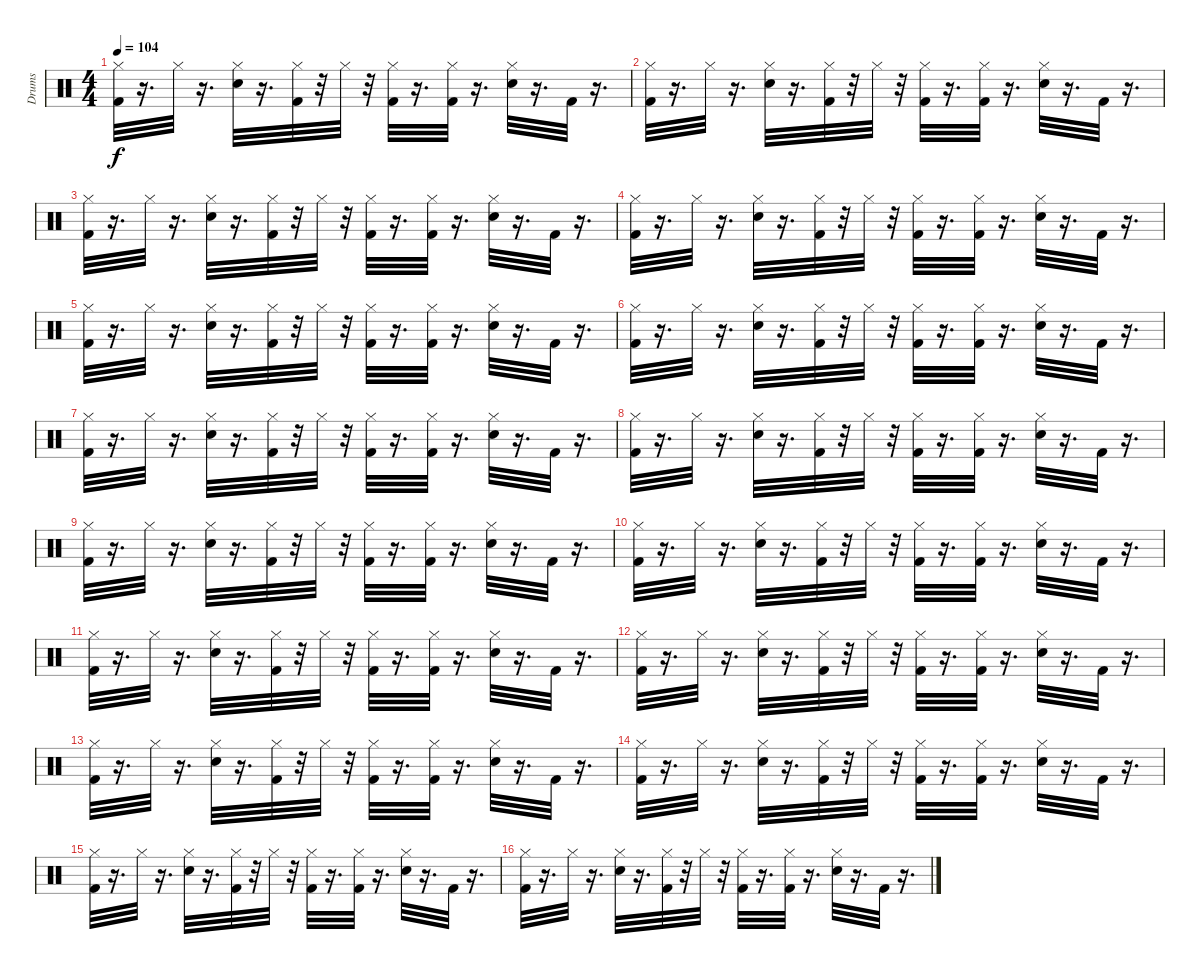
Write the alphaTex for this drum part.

\track ("Drums" "Drums") {instrument percussion}
\staff {score}
\articulation defaults
\ts (4 4)
\tempo 104
\clef neutral
\ks c
("Hi-Hat (closed)" "Kick (hit) 2").32{dy f} r.16{d} "Hi-Hat (closed)".32 r.16{d} ("Hi-Hat (closed)" "Snare (hit) 2").32 r.16{d} ("Hi-Hat (closed)" "Kick (hit) 2").32 r.32 "Hi-Hat (closed)".32 r.32 ("Hi-Hat (closed)" "Kick (hit) 2").32 r.16{d} ("Hi-Hat (closed)" "Kick (hit) 2").32 r.16{d} ("Hi-Hat (closed)" "Snare (hit) 2").32 r.16{d} "Kick (hit) 2".32 r.16{d} |
("Hi-Hat (closed)" "Kick (hit) 2").32 r.16{d} "Hi-Hat (closed)".32 r.16{d} ("Hi-Hat (closed)" "Snare (hit) 2").32 r.16{d} ("Hi-Hat (closed)" "Kick (hit) 2").32 r.32 "Hi-Hat (closed)".32 r.32 ("Hi-Hat (closed)" "Kick (hit) 2").32 r.16{d} ("Hi-Hat (closed)" "Kick (hit) 2").32 r.16{d} ("Hi-Hat (closed)" "Snare (hit) 2").32 r.16{d} "Kick (hit) 2".32 r.16{d} |
("Hi-Hat (closed)" "Kick (hit) 2").32 r.16{d} "Hi-Hat (closed)".32 r.16{d} ("Hi-Hat (closed)" "Snare (hit) 2").32 r.16{d} ("Hi-Hat (closed)" "Kick (hit) 2").32 r.32 "Hi-Hat (closed)".32 r.32 ("Hi-Hat (closed)" "Kick (hit) 2").32 r.16{d} ("Hi-Hat (closed)" "Kick (hit) 2").32 r.16{d} ("Hi-Hat (closed)" "Snare (hit) 2").32 r.16{d} "Kick (hit) 2".32 r.16{d} |
("Hi-Hat (closed)" "Kick (hit) 2").32 r.16{d} "Hi-Hat (closed)".32 r.16{d} ("Hi-Hat (closed)" "Snare (hit) 2").32 r.16{d} ("Hi-Hat (closed)" "Kick (hit) 2").32 r.32 "Hi-Hat (closed)".32 r.32 ("Hi-Hat (closed)" "Kick (hit) 2").32 r.16{d} ("Hi-Hat (closed)" "Kick (hit) 2").32 r.16{d} ("Hi-Hat (closed)" "Snare (hit) 2").32 r.16{d} "Kick (hit) 2".32 r.16{d} |
("Hi-Hat (closed)" "Kick (hit) 2").32 r.16{d} "Hi-Hat (closed)".32 r.16{d} ("Hi-Hat (closed)" "Snare (hit) 2").32 r.16{d} ("Hi-Hat (closed)" "Kick (hit) 2").32 r.32 "Hi-Hat (closed)".32 r.32 ("Hi-Hat (closed)" "Kick (hit) 2").32 r.16{d} ("Hi-Hat (closed)" "Kick (hit) 2").32 r.16{d} ("Hi-Hat (closed)" "Snare (hit) 2").32 r.16{d} "Kick (hit) 2".32 r.16{d} |
("Hi-Hat (closed)" "Kick (hit) 2").32 r.16{d} "Hi-Hat (closed)".32 r.16{d} ("Hi-Hat (closed)" "Snare (hit) 2").32 r.16{d} ("Hi-Hat (closed)" "Kick (hit) 2").32 r.32 "Hi-Hat (closed)".32 r.32 ("Hi-Hat (closed)" "Kick (hit) 2").32 r.16{d} ("Hi-Hat (closed)" "Kick (hit) 2").32 r.16{d} ("Hi-Hat (closed)" "Snare (hit) 2").32 r.16{d} "Kick (hit) 2".32 r.16{d} |
("Hi-Hat (closed)" "Kick (hit) 2").32 r.16{d} "Hi-Hat (closed)".32 r.16{d} ("Hi-Hat (closed)" "Snare (hit) 2").32 r.16{d} ("Hi-Hat (closed)" "Kick (hit) 2").32 r.32 "Hi-Hat (closed)".32 r.32 ("Hi-Hat (closed)" "Kick (hit) 2").32 r.16{d} ("Hi-Hat (closed)" "Kick (hit) 2").32 r.16{d} ("Hi-Hat (closed)" "Snare (hit) 2").32 r.16{d} "Kick (hit) 2".32 r.16{d} |
("Hi-Hat (closed)" "Kick (hit) 2").32 r.16{d} "Hi-Hat (closed)".32 r.16{d} ("Hi-Hat (closed)" "Snare (hit) 2").32 r.16{d} ("Hi-Hat (closed)" "Kick (hit) 2").32 r.32 "Hi-Hat (closed)".32 r.32 ("Hi-Hat (closed)" "Kick (hit) 2").32 r.16{d} ("Hi-Hat (closed)" "Kick (hit) 2").32 r.16{d} ("Hi-Hat (closed)" "Snare (hit) 2").32 r.16{d} "Kick (hit) 2".32 r.16{d} |
("Hi-Hat (closed)" "Kick (hit) 2").32 r.16{d} "Hi-Hat (closed)".32 r.16{d} ("Hi-Hat (closed)" "Snare (hit) 2").32 r.16{d} ("Hi-Hat (closed)" "Kick (hit) 2").32 r.32 "Hi-Hat (closed)".32 r.32 ("Hi-Hat (closed)" "Kick (hit) 2").32 r.16{d} ("Hi-Hat (closed)" "Kick (hit) 2").32 r.16{d} ("Hi-Hat (closed)" "Snare (hit) 2").32 r.16{d} "Kick (hit) 2".32 r.16{d} |
("Hi-Hat (closed)" "Kick (hit) 2").32 r.16{d} "Hi-Hat (closed)".32 r.16{d} ("Hi-Hat (closed)" "Snare (hit) 2").32 r.16{d} ("Hi-Hat (closed)" "Kick (hit) 2").32 r.32 "Hi-Hat (closed)".32 r.32 ("Hi-Hat (closed)" "Kick (hit) 2").32 r.16{d} ("Hi-Hat (closed)" "Kick (hit) 2").32 r.16{d} ("Hi-Hat (closed)" "Snare (hit) 2").32 r.16{d} "Kick (hit) 2".32 r.16{d} |
("Hi-Hat (closed)" "Kick (hit) 2").32 r.16{d} "Hi-Hat (closed)".32 r.16{d} ("Hi-Hat (closed)" "Snare (hit) 2").32 r.16{d} ("Hi-Hat (closed)" "Kick (hit) 2").32 r.32 "Hi-Hat (closed)".32 r.32 ("Hi-Hat (closed)" "Kick (hit) 2").32 r.16{d} ("Hi-Hat (closed)" "Kick (hit) 2").32 r.16{d} ("Hi-Hat (closed)" "Snare (hit) 2").32 r.16{d} "Kick (hit) 2".32 r.16{d} |
("Hi-Hat (closed)" "Kick (hit) 2").32 r.16{d} "Hi-Hat (closed)".32 r.16{d} ("Hi-Hat (closed)" "Snare (hit) 2").32 r.16{d} ("Hi-Hat (closed)" "Kick (hit) 2").32 r.32 "Hi-Hat (closed)".32 r.32 ("Hi-Hat (closed)" "Kick (hit) 2").32 r.16{d} ("Hi-Hat (closed)" "Kick (hit) 2").32 r.16{d} ("Hi-Hat (closed)" "Snare (hit) 2").32 r.16{d} "Kick (hit) 2".32 r.16{d} |
("Hi-Hat (closed)" "Kick (hit) 2").32 r.16{d} "Hi-Hat (closed)".32 r.16{d} ("Hi-Hat (closed)" "Snare (hit) 2").32 r.16{d} ("Hi-Hat (closed)" "Kick (hit) 2").32 r.32 "Hi-Hat (closed)".32 r.32 ("Hi-Hat (closed)" "Kick (hit) 2").32 r.16{d} ("Hi-Hat (closed)" "Kick (hit) 2").32 r.16{d} ("Hi-Hat (closed)" "Snare (hit) 2").32 r.16{d} "Kick (hit) 2".32 r.16{d} |
("Hi-Hat (closed)" "Kick (hit) 2").32 r.16{d} "Hi-Hat (closed)".32 r.16{d} ("Hi-Hat (closed)" "Snare (hit) 2").32 r.16{d} ("Hi-Hat (closed)" "Kick (hit) 2").32 r.32 "Hi-Hat (closed)".32 r.32 ("Hi-Hat (closed)" "Kick (hit) 2").32 r.16{d} ("Hi-Hat (closed)" "Kick (hit) 2").32 r.16{d} ("Hi-Hat (closed)" "Snare (hit) 2").32 r.16{d} "Kick (hit) 2".32 r.16{d} |
("Hi-Hat (closed)" "Kick (hit) 2").32 r.16{d} "Hi-Hat (closed)".32 r.16{d} ("Hi-Hat (closed)" "Snare (hit) 2").32 r.16{d} ("Hi-Hat (closed)" "Kick (hit) 2").32 r.32 "Hi-Hat (closed)".32 r.32 ("Hi-Hat (closed)" "Kick (hit) 2").32 r.16{d} ("Hi-Hat (closed)" "Kick (hit) 2").32 r.16{d} ("Hi-Hat (closed)" "Snare (hit) 2").32 r.16{d} "Kick (hit) 2".32 r.16{d} |
("Hi-Hat (closed)" "Kick (hit) 2").32 r.16{d} "Hi-Hat (closed)".32 r.16{d} ("Hi-Hat (closed)" "Snare (hit) 2").32 r.16{d} ("Hi-Hat (closed)" "Kick (hit) 2").32 r.32 "Hi-Hat (closed)".32 r.32 ("Hi-Hat (closed)" "Kick (hit) 2").32 r.16{d} ("Hi-Hat (closed)" "Kick (hit) 2").32 r.16{d} ("Hi-Hat (closed)" "Snare (hit) 2").32 r.16{d} "Kick (hit) 2".32 r.16{d}
